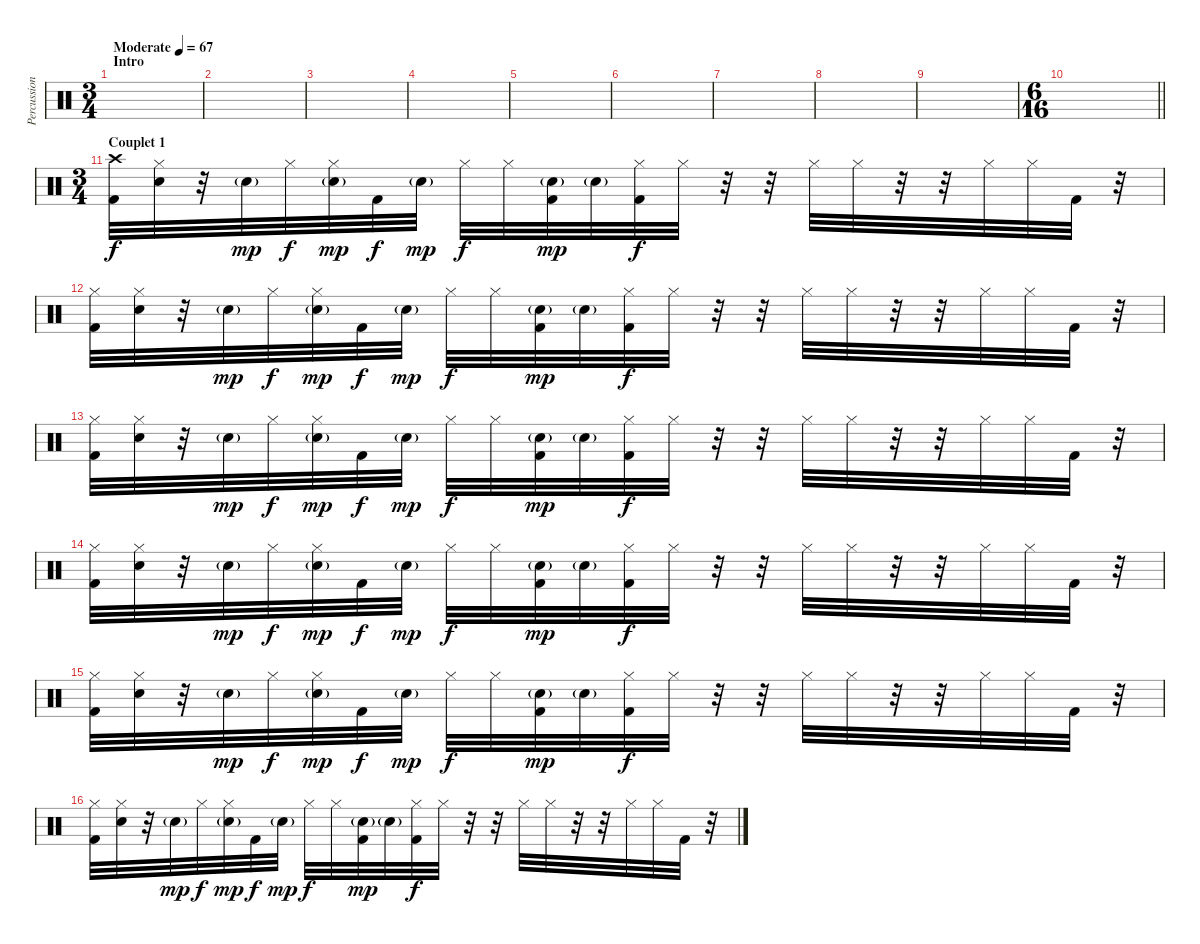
\track ("Percussions" "Percussion") {instrument percussion}
\staff {score}
\articulation defaults
\ts (3 4)
\section ("" "Intro")
\tempo (67 "Moderate")
\clef neutral
\ks c
|
|
|
|
|
|
|
|
|
\ts (6 16)
\barLineRight lightlight
|
\ts (3 4)
\section ("" "Couplet 1")
("Crash high (hit)" "Kick (hit) 2").32 ("Hi-Hat (closed)" "Electric Snare (hit)").32 r.32 "Electric Snare (hit)"{g}.32{dy mp} "Hi-Hat (closed)".32{dy f} ("Hi-Hat (closed)" "Electric Snare (hit)"{g}).32{dy mp} "Kick (hit) 2".32{dy f} "Electric Snare (hit)"{g}.32{dy mp} "Hi-Hat (closed)".32{dy f} "Hi-Hat (closed)".32 ("Electric Snare (hit)"{g} "Kick (hit) 2").32{dy mp} "Electric Snare (hit)"{g}.32 ("Hi-Hat (closed)" "Kick (hit) 2").32{dy f} "Hi-Hat (closed)".32 r.32 r.32 "Hi-Hat (closed)".32 "Hi-Hat (closed)".32 r.32 r.32 "Hi-Hat (closed)".32 "Hi-Hat (closed)".32 "Kick (hit) 2".32 r.32 |
("Hi-Hat (closed)" "Kick (hit) 2").32 ("Hi-Hat (closed)" "Electric Snare (hit)").32 r.32 "Electric Snare (hit)"{g}.32{dy mp} "Hi-Hat (closed)".32{dy f} ("Hi-Hat (closed)" "Electric Snare (hit)"{g}).32{dy mp} "Kick (hit) 2".32{dy f} "Electric Snare (hit)"{g}.32{dy mp} "Hi-Hat (closed)".32{dy f} "Hi-Hat (closed)".32 ("Electric Snare (hit)"{g} "Kick (hit) 2").32{dy mp} "Electric Snare (hit)"{g}.32 ("Hi-Hat (closed)" "Kick (hit) 2").32{dy f} "Hi-Hat (closed)".32 r.32 r.32 "Hi-Hat (closed)".32 "Hi-Hat (closed)".32 r.32 r.32 "Hi-Hat (closed)".32 "Hi-Hat (closed)".32 "Kick (hit) 2".32 r.32 |
("Hi-Hat (closed)" "Kick (hit) 2").32 ("Hi-Hat (closed)" "Electric Snare (hit)").32 r.32 "Electric Snare (hit)"{g}.32{dy mp} "Hi-Hat (closed)".32{dy f} ("Hi-Hat (closed)" "Electric Snare (hit)"{g}).32{dy mp} "Kick (hit) 2".32{dy f} "Electric Snare (hit)"{g}.32{dy mp} "Hi-Hat (closed)".32{dy f} "Hi-Hat (closed)".32 ("Electric Snare (hit)"{g} "Kick (hit) 2").32{dy mp} "Electric Snare (hit)"{g}.32 ("Hi-Hat (closed)" "Kick (hit) 2").32{dy f} "Hi-Hat (closed)".32 r.32 r.32 "Hi-Hat (closed)".32 "Hi-Hat (closed)".32 r.32 r.32 "Hi-Hat (closed)".32 "Hi-Hat (closed)".32 "Kick (hit) 2".32 r.32 |
("Hi-Hat (closed)" "Kick (hit) 2").32 ("Hi-Hat (closed)" "Electric Snare (hit)").32 r.32 "Electric Snare (hit)"{g}.32{dy mp} "Hi-Hat (closed)".32{dy f} ("Hi-Hat (closed)" "Electric Snare (hit)"{g}).32{dy mp} "Kick (hit) 2".32{dy f} "Electric Snare (hit)"{g}.32{dy mp} "Hi-Hat (closed)".32{dy f} "Hi-Hat (closed)".32 ("Electric Snare (hit)"{g} "Kick (hit) 2").32{dy mp} "Electric Snare (hit)"{g}.32 ("Hi-Hat (closed)" "Kick (hit) 2").32{dy f} "Hi-Hat (closed)".32 r.32 r.32 "Hi-Hat (closed)".32 "Hi-Hat (closed)".32 r.32 r.32 "Hi-Hat (closed)".32 "Hi-Hat (closed)".32 "Kick (hit) 2".32 r.32 |
("Hi-Hat (closed)" "Kick (hit) 2").32 ("Hi-Hat (closed)" "Electric Snare (hit)").32 r.32 "Electric Snare (hit)"{g}.32{dy mp} "Hi-Hat (closed)".32{dy f} ("Hi-Hat (closed)" "Electric Snare (hit)"{g}).32{dy mp} "Kick (hit) 2".32{dy f} "Electric Snare (hit)"{g}.32{dy mp} "Hi-Hat (closed)".32{dy f} "Hi-Hat (closed)".32 ("Electric Snare (hit)"{g} "Kick (hit) 2").32{dy mp} "Electric Snare (hit)"{g}.32 ("Hi-Hat (closed)" "Kick (hit) 2").32{dy f} "Hi-Hat (closed)".32 r.32 r.32 "Hi-Hat (closed)".32 "Hi-Hat (closed)".32 r.32 r.32 "Hi-Hat (closed)".32 "Hi-Hat (closed)".32 "Kick (hit) 2".32 r.32 |
("Hi-Hat (closed)" "Kick (hit) 2").32 ("Hi-Hat (closed)" "Electric Snare (hit)").32 r.32 "Electric Snare (hit)"{g}.32{dy mp} "Hi-Hat (closed)".32{dy f} ("Hi-Hat (closed)" "Electric Snare (hit)"{g}).32{dy mp} "Kick (hit) 2".32{dy f} "Electric Snare (hit)"{g}.32{dy mp} "Hi-Hat (closed)".32{dy f} "Hi-Hat (closed)".32 ("Electric Snare (hit)"{g} "Kick (hit) 2").32{dy mp} "Electric Snare (hit)"{g}.32 ("Hi-Hat (closed)" "Kick (hit) 2").32{dy f} "Hi-Hat (closed)".32 r.32 r.32 "Hi-Hat (closed)".32 "Hi-Hat (closed)".32 r.32 r.32 "Hi-Hat (closed)".32 "Hi-Hat (closed)".32 "Kick (hit) 2".32 r.32
